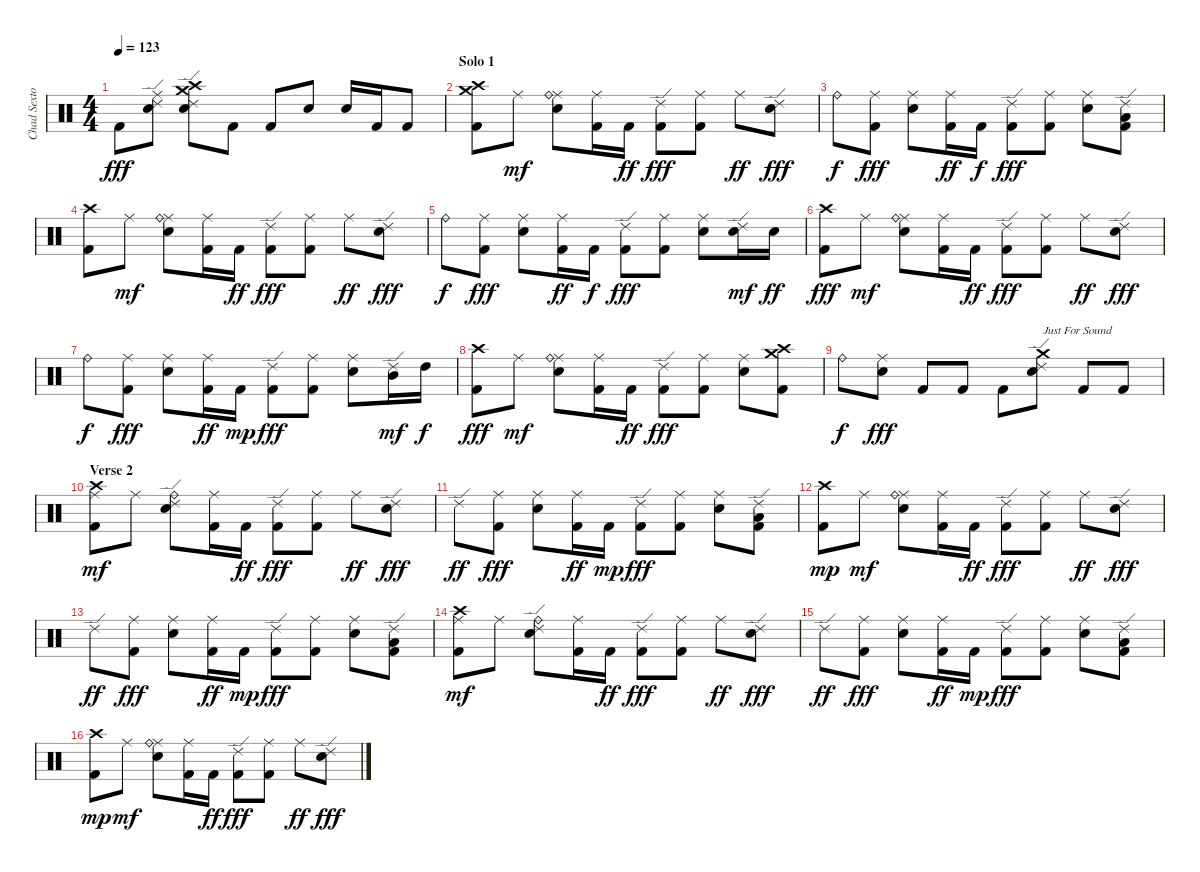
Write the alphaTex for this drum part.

\track ("Chad Sexton (Drums)" "Chad Sexto") {instrument percussion}
\staff {score}
\articulation defaults
\ts (4 4)
\tempo 123
\clef neutral
\ks c "Kick (hit) 2".8{dy fff}
("Ride (middle)" "Electric Snare (hit)" "Ride (edge) 2").8 ("Crash medium (hit)" "Electric Snare (hit)" "Ride (edge) 2" "Crash high (hit)").8 "Kick (hit) 2".8 "Kick (hit) 2".8 "Electric Snare (hit)".8 "Electric Snare (hit)".16 "Kick (hit) 2".16 "Kick (hit) 2".8 |
\section ("" "Solo 1")
("Crash medium (hit)" "Kick (hit) 2" "Crash high (hit)").8{volume 11} "Ride (middle)".8{dy mf} ("Ride (middle)" "Electric Snare (hit)" "Ride (bell)").8 ("Ride (middle)" "Kick (hit) 2").16 "Kick (hit) 2".16{dy ff} ("Ride (edge) 2" "Kick (hit) 2").8{dy fff} ("Ride (middle)" "Kick (hit) 2").8 "Ride (middle)".8{dy ff} ("Ride (edge) 2" "Electric Snare (hit)").8{dy fff} |
"Ride (bell)".8{dy f} ("Ride (middle)" "Kick (hit) 2").8{dy fff} ("Ride (middle)" "Electric Snare (hit)").8 ("Ride (middle)" "Kick (hit) 2").16{dy ff} "Kick (hit) 2".16{dy f} ("Ride (edge) 2" "Kick (hit) 2").8{dy fff} ("Ride (middle)" "Kick (hit) 2").8 ("Ride (middle)" "Electric Snare (hit)").8 ("Ride (edge) 2" "Kick (hit) 2" "Low Tom (hit)").8 |
("Kick (hit) 2" "Crash high (hit)").8 "Ride (middle)".8{dy mf} ("Ride (middle)" "Electric Snare (hit)" "Ride (bell)").8 ("Ride (middle)" "Kick (hit) 2").16 "Kick (hit) 2".16{dy ff} ("Ride (edge) 2" "Kick (hit) 2").8{dy fff} ("Ride (middle)" "Kick (hit) 2").8 "Ride (middle)".8{dy ff} ("Ride (edge) 2" "Electric Snare (hit)").8{dy fff} |
"Ride (bell)".8{dy f} ("Ride (middle)" "Kick (hit) 2").8{dy fff} ("Ride (middle)" "Electric Snare (hit)").8 ("Ride (middle)" "Kick (hit) 2").16{dy ff} "Kick (hit) 2".16{dy f} ("Ride (edge) 2" "Kick (hit) 2").8{dy fff} ("Ride (middle)" "Kick (hit) 2").8 ("Ride (middle)" "Electric Snare (hit)").8 ("Ride (edge) 2" "Electric Snare (hit)").16{dy mf} "Electric Snare (hit)".16{dy ff} |
("Kick (hit) 2" "Crash high (hit)").8{dy fff} "Ride (middle)".8{dy mf} ("Ride (middle)" "Electric Snare (hit)" "Ride (bell)").8 ("Ride (middle)" "Kick (hit) 2").16 "Kick (hit) 2".16{dy ff} ("Ride (edge) 2" "Kick (hit) 2").8{dy fff} ("Ride (middle)" "Kick (hit) 2").8 "Ride (middle)".8{dy ff} ("Ride (edge) 2" "Electric Snare (hit)").8{dy fff} |
"Ride (bell)".8{dy f} ("Ride (middle)" "Kick (hit) 2").8{dy fff} ("Ride (middle)" "Electric Snare (hit)").8 ("Ride (middle)" "Kick (hit) 2").16{dy ff} "Kick (hit) 2".16{dy mp} ("Ride (edge) 2" "Kick (hit) 2").8{dy fff} ("Ride (middle)" "Kick (hit) 2").8 ("Ride (middle)" "Electric Snare (hit)").8 ("Ride (edge) 2" "Mid Tom (hit)").16{dy mf} "High Tom (hit)".16{dy f} |
("Kick (hit) 2" "Crash high (hit)").8{dy fff} "Ride (middle)".8{dy mf} ("Ride (middle)" "Electric Snare (hit)" "Ride (bell)").8 ("Ride (middle)" "Kick (hit) 2").16 "Kick (hit) 2".16{dy ff} ("Ride (edge) 2" "Kick (hit) 2").8{dy fff} ("Ride (middle)" "Kick (hit) 2").8 ("Ride (middle)" "Electric Snare (hit)").8 ("Crash high (hit)" "Kick (hit) 2" "Crash medium (hit)").8 |
"Ride (bell)".8{dy f} ("Ride (middle)" "Electric Snare (hit)").8{dy fff} "Kick (hit) 2".8 "Kick (hit) 2".8 "Kick (hit) 2".8 ("Crash medium (hit)" "Electric Snare (hit)" "Ride (edge) 2").8{txt "Just For Sound"} "Kick (hit) 2".8 "Kick (hit) 2".8 |
\section ("" "Verse 2")
("Ride (middle)" "Kick (hit) 2" "Crash high (hit)").8{dy mf volume 13} "Ride (middle)".8 ("Ride (edge) 2" "Electric Snare (hit)" "Ride (bell)").8 ("Ride (middle)" "Kick (hit) 2").16 "Kick (hit) 2".16{dy ff} ("Ride (edge) 2" "Kick (hit) 2").8{dy fff} ("Ride (middle)" "Kick (hit) 2").8 "Ride (middle)".8{dy ff} ("Ride (edge) 2" "Electric Snare (hit)").8{dy fff} |
"Ride (edge) 2".8{dy ff} ("Ride (middle)" "Kick (hit) 2").8{dy fff} ("Ride (middle)" "Electric Snare (hit)").8 ("Ride (middle)" "Kick (hit) 2").16{dy ff} "Kick (hit) 2".16{dy mp} ("Ride (edge) 2" "Kick (hit) 2").8{dy fff} ("Ride (middle)" "Kick (hit) 2").8 ("Ride (middle)" "Electric Snare (hit)").8 ("Ride (edge) 2" "Kick (hit) 2" "Low Tom (hit)").8 |
("Kick (hit) 2" "Crash high (hit)").8{dy mp} "Ride (middle)".8{dy mf} ("Ride (middle)" "Electric Snare (hit)" "Ride (bell)").8 ("Ride (middle)" "Kick (hit) 2").16 "Kick (hit) 2".16{dy ff} ("Ride (edge) 2" "Kick (hit) 2").8{dy fff} ("Ride (middle)" "Kick (hit) 2").8 "Ride (middle)".8{dy ff} ("Ride (edge) 2" "Electric Snare (hit)").8{dy fff} |
"Ride (edge) 2".8{dy ff} ("Ride (middle)" "Kick (hit) 2").8{dy fff} ("Ride (middle)" "Electric Snare (hit)").8 ("Ride (middle)" "Kick (hit) 2").16{dy ff} "Kick (hit) 2".16{dy mp} ("Ride (edge) 2" "Kick (hit) 2").8{dy fff} ("Ride (middle)" "Kick (hit) 2").8 ("Ride (middle)" "Electric Snare (hit)").8 ("Ride (edge) 2" "Kick (hit) 2" "Low Tom (hit)").8 |
("Ride (middle)" "Kick (hit) 2" "Crash high (hit)").8{dy mf} "Ride (middle)".8 ("Ride (edge) 2" "Electric Snare (hit)" "Ride (bell)").8 ("Ride (middle)" "Kick (hit) 2").16 "Kick (hit) 2".16{dy ff} ("Ride (edge) 2" "Kick (hit) 2").8{dy fff} ("Ride (middle)" "Kick (hit) 2").8 "Ride (middle)".8{dy ff} ("Ride (edge) 2" "Electric Snare (hit)").8{dy fff} |
"Ride (edge) 2".8{dy ff} ("Ride (middle)" "Kick (hit) 2").8{dy fff} ("Ride (middle)" "Electric Snare (hit)").8 ("Ride (middle)" "Kick (hit) 2").16{dy ff} "Kick (hit) 2".16{dy mp} ("Ride (edge) 2" "Kick (hit) 2").8{dy fff} ("Ride (middle)" "Kick (hit) 2").8 ("Ride (middle)" "Electric Snare (hit)").8 ("Ride (edge) 2" "Kick (hit) 2" "Low Tom (hit)").8 |
("Kick (hit) 2" "Crash high (hit)").8{dy mp} "Ride (middle)".8{dy mf} ("Ride (middle)" "Electric Snare (hit)" "Ride (bell)").8 ("Ride (middle)" "Kick (hit) 2").16 "Kick (hit) 2".16{dy ff} ("Ride (edge) 2" "Kick (hit) 2").8{dy fff} ("Ride (middle)" "Kick (hit) 2").8 "Ride (middle)".8{dy ff} ("Ride (edge) 2" "Electric Snare (hit)").8{dy fff}
